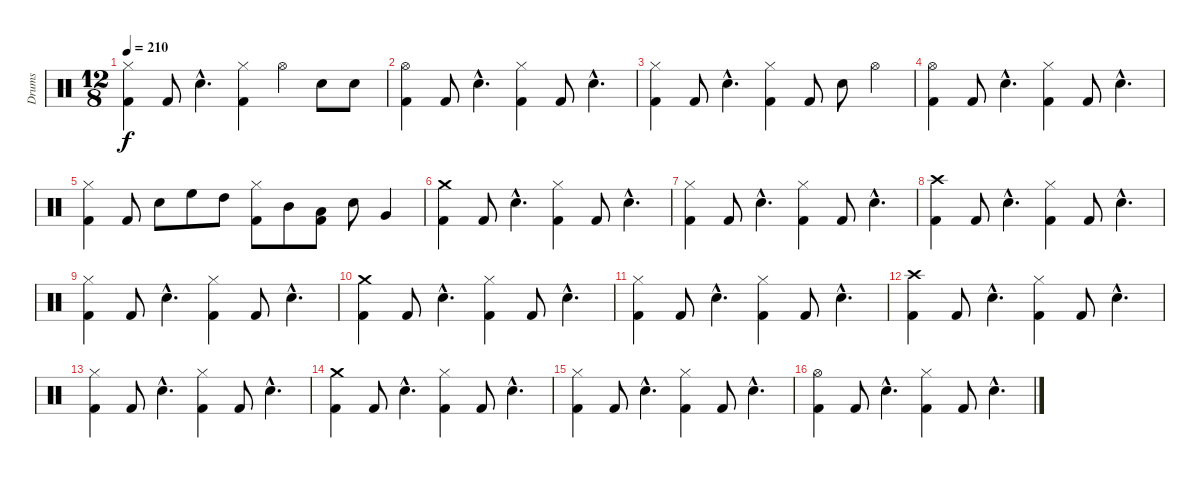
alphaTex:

\track ("Drums" "Drums") {instrument percussion}
\staff {score}
\articulation defaults
\ts (12 8)
\tempo 210
\clef neutral
\ks c
("Kick (hit) 2" "Hi-Hat (closed)").4{dy f} "Kick (hit) 2".8 "Snare (hit) 2"{hac}.4{d} ("Kick (hit) 2" "Hi-Hat (closed)").4 "Hi-Hat (open)".4 "Snare (hit) 2".8 "Snare (hit) 2".8 |
("Kick (hit) 2" "Hi-Hat (open)").4 "Kick (hit) 2".8 "Snare (hit) 2"{hac}.4{d} ("Kick (hit) 2" "Hi-Hat (closed)").4 "Kick (hit) 2".8 "Snare (hit) 2"{hac}.4{d} |
("Kick (hit) 2" "Hi-Hat (closed)").4 "Kick (hit) 2".8 "Snare (hit) 2"{hac}.4{d} ("Kick (hit) 2" "Hi-Hat (closed)").4 "Kick (hit) 2".8 "Snare (hit) 2".8 "Hi-Hat (open)".4 |
("Kick (hit) 2" "Hi-Hat (open)").4 "Kick (hit) 2".8 "Snare (hit) 2"{hac}.4{d} ("Kick (hit) 2" "Hi-Hat (closed)").4 "Kick (hit) 2".8 "Snare (hit) 2"{hac}.4{d} |
("Kick (hit) 2" "Hi-Hat (closed)").4 "Kick (hit) 2".8 "Snare (hit) 2".8 "High Floor Tom (hit)".8 "High Tom (hit)".8 ("Kick (hit) 2" "Hi-Hat (closed)").8 "Mid Tom (hit)".8 ("Kick (hit) 2" "Low Tom (hit)").8 "Snare (hit) 2".8 "Very Low Tom (hit)".4 |
("Kick (hit) 2" "Crash medium (hit)").4 "Kick (hit) 2".8 "Snare (hit) 2"{hac}.4{d} ("Kick (hit) 2" "Hi-Hat (closed)").4 "Kick (hit) 2".8 "Snare (hit) 2"{hac}.4{d} |
("Kick (hit) 2" "Hi-Hat (closed)").4 "Kick (hit) 2".8 "Snare (hit) 2"{hac}.4{d} ("Kick (hit) 2" "Hi-Hat (closed)").4 "Kick (hit) 2".8 "Snare (hit) 2"{hac}.4{d} |
("Kick (hit) 2" "Crash high (hit)").4 "Kick (hit) 2".8 "Snare (hit) 2"{hac}.4{d} ("Kick (hit) 2" "Hi-Hat (closed)").4 "Kick (hit) 2".8 "Snare (hit) 2"{hac}.4{d} |
("Kick (hit) 2" "Hi-Hat (closed)").4 "Kick (hit) 2".8 "Snare (hit) 2"{hac}.4{d} ("Kick (hit) 2" "Hi-Hat (closed)").4 "Kick (hit) 2".8 "Snare (hit) 2"{hac}.4{d} |
("Kick (hit) 2" "Crash medium (hit)").4 "Kick (hit) 2".8 "Snare (hit) 2"{hac}.4{d} ("Kick (hit) 2" "Hi-Hat (closed)").4 "Kick (hit) 2".8 "Snare (hit) 2"{hac}.4{d} |
("Kick (hit) 2" "Hi-Hat (closed)").4 "Kick (hit) 2".8 "Snare (hit) 2"{hac}.4{d} ("Kick (hit) 2" "Hi-Hat (closed)").4 "Kick (hit) 2".8 "Snare (hit) 2"{hac}.4{d} |
("Kick (hit) 2" "Crash high (hit)").4 "Kick (hit) 2".8 "Snare (hit) 2"{hac}.4{d} ("Kick (hit) 2" "Hi-Hat (closed)").4 "Kick (hit) 2".8 "Snare (hit) 2"{hac}.4{d} |
("Kick (hit) 2" "Hi-Hat (closed)").4 "Kick (hit) 2".8 "Snare (hit) 2"{hac}.4{d} ("Kick (hit) 2" "Hi-Hat (closed)").4 "Kick (hit) 2".8 "Snare (hit) 2"{hac}.4{d} |
("Kick (hit) 2" "Crash medium (hit)").4 "Kick (hit) 2".8 "Snare (hit) 2"{hac}.4{d} ("Kick (hit) 2" "Hi-Hat (closed)").4 "Kick (hit) 2".8 "Snare (hit) 2"{hac}.4{d} |
("Kick (hit) 2" "Hi-Hat (closed)").4 "Kick (hit) 2".8 "Snare (hit) 2"{hac}.4{d} ("Kick (hit) 2" "Hi-Hat (closed)").4 "Kick (hit) 2".8 "Snare (hit) 2"{hac}.4{d} |
("Kick (hit) 2" "Hi-Hat (open)").4 "Kick (hit) 2".8 "Snare (hit) 2"{hac}.4{d} ("Kick (hit) 2" "Hi-Hat (closed)").4 "Kick (hit) 2".8 "Snare (hit) 2"{hac}.4{d}
